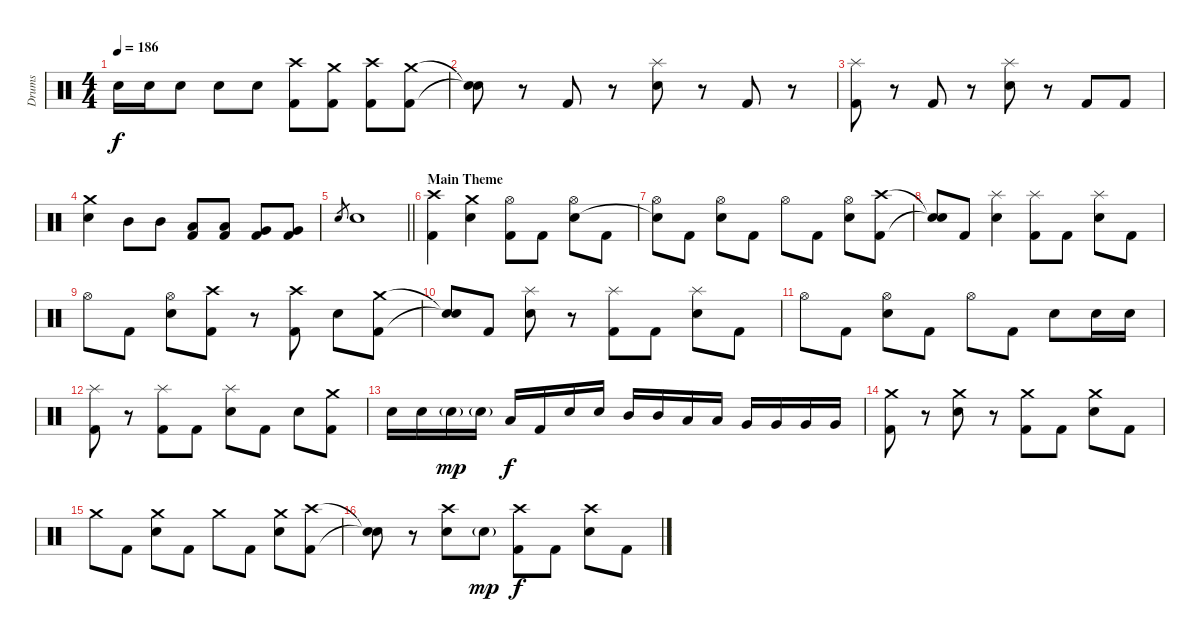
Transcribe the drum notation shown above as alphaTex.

\track ("Drums" "Drums") {instrument percussion}
\staff {score}
\articulation defaults
\ts (4 4)
\tempo 186
\clef neutral
\ks c "Electric Snare (hit)".16{dy f} "Electric Snare (hit)".16 "Electric Snare (hit)".8 "Electric Snare (hit)".8 "Electric Snare (hit)".8
("Crash high (hit)" "Kick (hit) 2").8 ("Crash medium (hit)" "Kick (hit) 2").8 ("Crash high (hit)" "Kick (hit) 2").8 ("Crash medium (hit)" "Kick (hit) 2").8 |
("Snare (hit)"{t} "Snare (hit)"{t}).8 r.8 "Kick (hit) 2".8 r.8 ("Splash (hit)" "Electric Snare (hit)").8 r.8 "Kick (hit) 2".8 r.8 |
("Splash (hit)" "Kick (hit) 2").8 r.8 "Kick (hit) 2".8 r.8 ("Splash (hit)" "Electric Snare (hit)").8 r.8 "Kick (hit) 2".8 "Kick (hit) 2".8 |
("Crash medium (hit)" "Electric Snare (hit)").4 "Mid Tom (hit)".8 "Mid Tom (hit)".8 ("Low Tom (hit)" "Kick (hit) 2").8 ("Low Tom (hit)" "Kick (hit) 2").8 ("Very Low Tom (hit)" "Kick (hit) 2").8 ("Very Low Tom (hit)" "Kick (hit) 2").8 |
\barLineRight lightlight "Electric Snare (hit)".8{gr} "Electric Snare (hit)".1
|
\section ("" "Main Theme")
("Crash high (hit)" "Kick (hit) 2").4 ("Crash medium (hit)" "Electric Snare (hit)").4 ("Hi-Hat (open)" "Kick (hit) 2").8 "Kick (hit) 2".8 ("Hi-Hat (open)" "Electric Snare (hit)").8 "Kick (hit) 2".8 |
("Hi-Hat (open)" "Snare (hit)"{t}).8 "Kick (hit) 2".8 ("Hi-Hat (open)" "Electric Snare (hit)").8 "Kick (hit) 2".8 "Hi-Hat (open)".8 "Kick (hit) 2".8 ("Hi-Hat (open)" "Electric Snare (hit)").8 ("Crash high (hit)" "Kick (hit) 2").8 |
("Snare (hit)"{t} "Snare (hit)"{t}).8 "Kick (hit) 2".8 ("Splash (hit)" "Electric Snare (hit)").4 ("Splash (hit)" "Kick (hit) 2").8 "Kick (hit) 2".8 ("Splash (hit)" "Electric Snare (hit)").8 "Kick (hit) 2".8 |
"Hi-Hat (open)".8 "Kick (hit) 2".8 ("Hi-Hat (open)" "Electric Snare (hit)").8 ("Crash high (hit)" "Kick (hit) 2").8 r.8 ("Crash high (hit)" "Kick (hit) 2").8 "Electric Snare (hit)".8 ("Crash medium (hit)" "Kick (hit) 2").8 |
("Snare (hit)"{t} "Snare (hit)"{t}).8 "Kick (hit) 2".8 ("Splash (hit)" "Electric Snare (hit)").8 r.8 ("Splash (hit)" "Kick (hit) 2").8 "Kick (hit) 2".8 ("Splash (hit)" "Electric Snare (hit)").8 "Kick (hit) 2".8 |
"Hi-Hat (open)".8 "Kick (hit) 2".8 ("Hi-Hat (open)" "Electric Snare (hit)").8 "Kick (hit) 2".8 "Hi-Hat (open)".8 "Kick (hit) 2".8 "Electric Snare (hit)".8 "Electric Snare (hit)".16 "Electric Snare (hit)".16 |
("Splash (hit)" "Kick (hit) 2").8 r.8 ("Splash (hit)" "Kick (hit) 2").8 "Kick (hit) 2".8 ("Splash (hit)" "Electric Snare (hit)").8 "Kick (hit) 2".8 "Electric Snare (hit)".8 ("Crash medium (hit)" "Kick (hit) 2").8 |
"Electric Snare (hit)".16 "Electric Snare (hit)".16 "Electric Snare (hit)"{g}.16{dy mp} "Electric Snare (hit)"{g}.16 "Low Tom (hit)".16{dy f} "Kick (hit) 2".16 "Electric Snare (hit)".16 "Electric Snare (hit)".16 "Mid Tom (hit)".16 "Mid Tom (hit)".16 "Low Tom (hit)".16 "Low Tom (hit)".16 "Very Low Tom (hit)".16 "Very Low Tom (hit)".16 "Very Low Tom (hit)".16 "Very Low Tom (hit)".16 |
("Crash medium (hit)" "Kick (hit) 2").8 r.8 ("Crash medium (hit)" "Electric Snare (hit)").8 r.8 ("Crash medium (hit)" "Kick (hit) 2").8 "Kick (hit) 2".8 ("Crash medium (hit)" "Electric Snare (hit)").8 "Kick (hit) 2".8 |
"Crash medium (hit)".8 "Kick (hit) 2".8 ("Crash medium (hit)" "Electric Snare (hit)").8 "Kick (hit) 2".8 "Crash medium (hit)".8 "Kick (hit) 2".8 ("Crash medium (hit)" "Electric Snare (hit)").8 ("Crash high (hit)" "Kick (hit) 2").8 |
("Snare (hit)"{t} "Snare (hit)"{t}).8 r.8 ("Crash high (hit)" "Electric Snare (hit)").8 "Electric Snare (hit)"{g}.8{dy mp} ("Crash high (hit)" "Kick (hit) 2").8{dy f} "Kick (hit) 2".8 ("Crash high (hit)" "Electric Snare (hit)").8 "Kick (hit) 2".8
